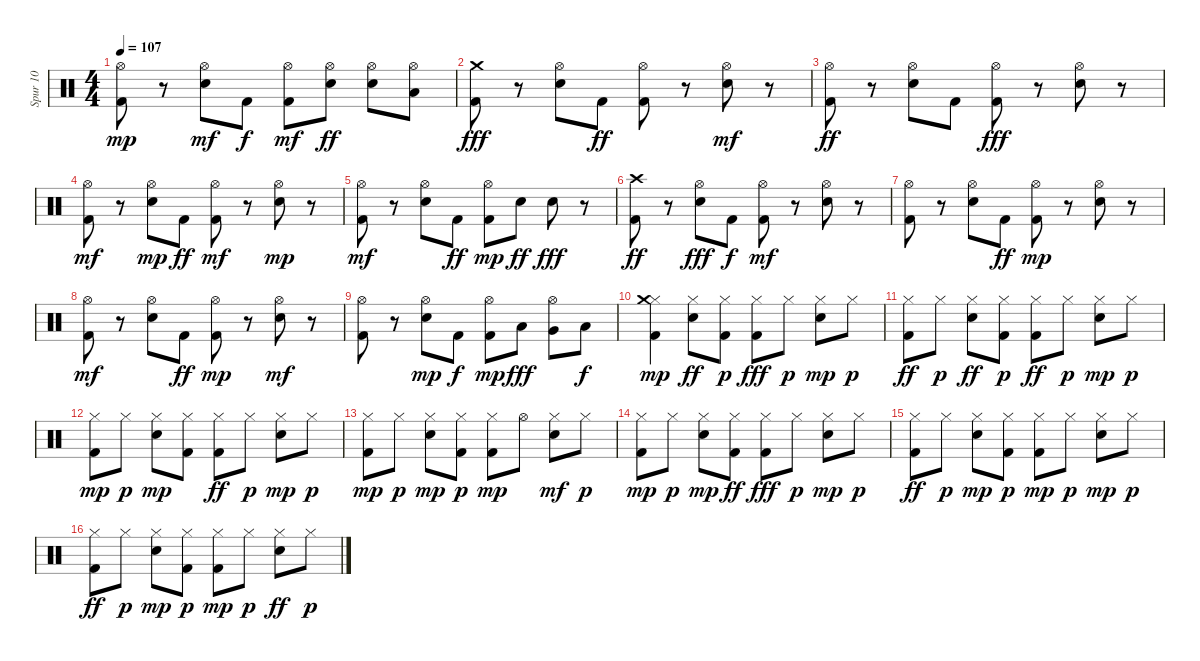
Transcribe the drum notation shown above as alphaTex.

\track ("Spur 10" "Spur 10") {instrument percussion}
\staff {score}
\articulation defaults
\ts (4 4)
\tempo 107
\clef neutral
\ks c
("Kick (hit) 2" "Hi-Hat (open)").8{dy mp} r.8 ("Electric Snare (hit)" "Hi-Hat (open)").8{dy mf} "Kick (hit) 2".8{dy f} ("Kick (hit) 2" "Hi-Hat (open)").8{dy mf} ("Hi-Hat (open)" "Electric Snare (hit)").8{dy ff} ("Hi-Hat (open)" "Electric Snare (hit)").8 ("Hi-Hat (open)" "Low Floor Tom (hit)").8 |
("Crash medium (hit)" "Kick (hit) 2").8{dy fff} r.8 ("Hi-Hat (open)" "Electric Snare (hit)").8 "Kick (hit) 2".8{dy ff} ("Kick (hit) 2" "Hi-Hat (open)").8 r.8 ("Electric Snare (hit)" "Hi-Hat (open)").8{dy mf} r.8 |
("Hi-Hat (open)" "Kick (hit) 2").8{dy ff} r.8 ("Hi-Hat (open)" "Electric Snare (hit)").8 "Kick (hit) 2".8 ("Hi-Hat (open)" "Kick (hit) 2").8{dy fff} r.8 ("Electric Snare (hit)" "Hi-Hat (open)").8 r.8 |
("Kick (hit) 2" "Hi-Hat (open)").8{dy mf} r.8 ("Electric Snare (hit)" "Hi-Hat (open)").8{dy mp} "Kick (hit) 2".8{dy ff} ("Kick (hit) 2" "Hi-Hat (open)").8{dy mf} r.8 ("Electric Snare (hit)" "Hi-Hat (open)").8{dy mp} r.8 |
("Kick (hit) 2" "Hi-Hat (open)").8{dy mf} r.8 ("Electric Snare (hit)" "Hi-Hat (open)").8 "Kick (hit) 2".8{dy ff} ("Kick (hit) 2" "Hi-Hat (open)").8{dy mp} "Electric Snare (hit)".8{dy ff} "Electric Snare (hit)".8{dy fff} r.8 |
("Crash high (hit)" "Kick (hit) 2").8{dy ff} r.8 ("Hi-Hat (open)" "Electric Snare (hit)").8{dy fff} "Kick (hit) 2".8{dy f} ("Kick (hit) 2" "Hi-Hat (open)").8{dy mf} r.8 ("Electric Snare (hit)" "Hi-Hat (open)").8 r.8 |
("Kick (hit) 2" "Hi-Hat (open)").8 r.8 ("Electric Snare (hit)" "Hi-Hat (open)").8 "Kick (hit) 2".8{dy ff} ("Kick (hit) 2" "Hi-Hat (open)").8{dy mp} r.8 ("Electric Snare (hit)" "Hi-Hat (open)").8 r.8 |
("Kick (hit) 2" "Hi-Hat (open)").8{dy mf} r.8 ("Electric Snare (hit)" "Hi-Hat (open)").8 "Kick (hit) 2".8{dy ff} ("Kick (hit) 2" "Hi-Hat (open)").8{dy mp} r.8 ("Electric Snare (hit)" "Hi-Hat (open)").8{dy mf} r.8 |
("Kick (hit) 2" "Hi-Hat (open)").8 r.8 ("Electric Snare (hit)" "Hi-Hat (open)").8{dy mp} "Kick (hit) 2".8{dy f} ("Kick (hit) 2" "Hi-Hat (open)").8{dy mp} "Low Tom (hit)".8{dy fff} ("Hi-Hat (open)" "Very Low Tom (hit)").8 "Low Floor Tom (hit)".8{dy f} |
("Kick (hit) 2" "Hi-Hat (closed)" "Crash medium (hit)").4{dy mp} ("Hi-Hat (closed)" "Electric Snare (hit)").8{dy ff} ("Hi-Hat (closed)" "Kick (hit) 2").8{dy p} ("Hi-Hat (closed)" "Kick (hit) 2").8{dy fff} "Hi-Hat (closed)".8{dy p} ("Electric Snare (hit)" "Hi-Hat (closed)").8{dy mp} "Hi-Hat (closed)".8{dy p} |
("Hi-Hat (closed)" "Kick (hit) 2").8{dy ff} "Hi-Hat (closed)".8{dy p} ("Hi-Hat (closed)" "Electric Snare (hit)").8{dy ff} ("Hi-Hat (closed)" "Kick (hit) 2").8{dy p} ("Hi-Hat (closed)" "Kick (hit) 2").8{dy ff} "Hi-Hat (closed)".8{dy p} ("Electric Snare (hit)" "Hi-Hat (closed)").8{dy mp} "Hi-Hat (closed)".8{dy p} |
("Kick (hit) 2" "Hi-Hat (closed)").8{dy mp} "Hi-Hat (closed)".8{dy p} ("Electric Snare (hit)" "Hi-Hat (closed)").8{dy mp} ("Kick (hit) 2" "Hi-Hat (closed)").8 ("Hi-Hat (closed)" "Kick (hit) 2").8{dy ff} "Hi-Hat (closed)".8{dy p} ("Electric Snare (hit)" "Hi-Hat (closed)").8{dy mp} "Hi-Hat (closed)".8{dy p} |
("Kick (hit) 2" "Hi-Hat (closed)").8{dy mp} "Hi-Hat (closed)".8{dy p} ("Electric Snare (hit)" "Hi-Hat (closed)").8{dy mp} ("Kick (hit) 2" "Hi-Hat (closed)").8{dy p} ("Kick (hit) 2" "Hi-Hat (closed)").8{dy mp} "Hi-Hat (open)".8 ("Electric Snare (hit)" "Hi-Hat (closed)").8{dy mf} "Hi-Hat (closed)".8{dy p} |
("Kick (hit) 2" "Hi-Hat (closed)").8{dy mp} "Hi-Hat (closed)".8{dy p} ("Electric Snare (hit)" "Hi-Hat (closed)").8{dy mp} ("Hi-Hat (closed)" "Kick (hit) 2").8{dy ff} ("Hi-Hat (closed)" "Kick (hit) 2").8{dy fff} "Hi-Hat (closed)".8{dy p} ("Electric Snare (hit)" "Hi-Hat (closed)").8{dy mp} "Hi-Hat (closed)".8{dy p} |
("Hi-Hat (closed)" "Kick (hit) 2").8{dy ff} "Hi-Hat (closed)".8{dy p} ("Electric Snare (hit)" "Hi-Hat (closed)").8{dy mp} ("Hi-Hat (closed)" "Kick (hit) 2").8{dy p} ("Hi-Hat (closed)" "Kick (hit) 2").8{dy mp} "Hi-Hat (closed)".8{dy p} ("Electric Snare (hit)" "Hi-Hat (closed)").8{dy mp} "Hi-Hat (closed)".8{dy p} |
("Hi-Hat (closed)" "Kick (hit) 2").8{dy ff} "Hi-Hat (closed)".8{dy p} ("Hi-Hat (closed)" "Electric Snare (hit)").8{dy mp} ("Hi-Hat (closed)" "Kick (hit) 2").8{dy p} ("Hi-Hat (closed)" "Kick (hit) 2").8{dy mp} "Hi-Hat (closed)".8{dy p} ("Hi-Hat (closed)" "Electric Snare (hit)").8{dy ff} "Hi-Hat (closed)".8{dy p}
